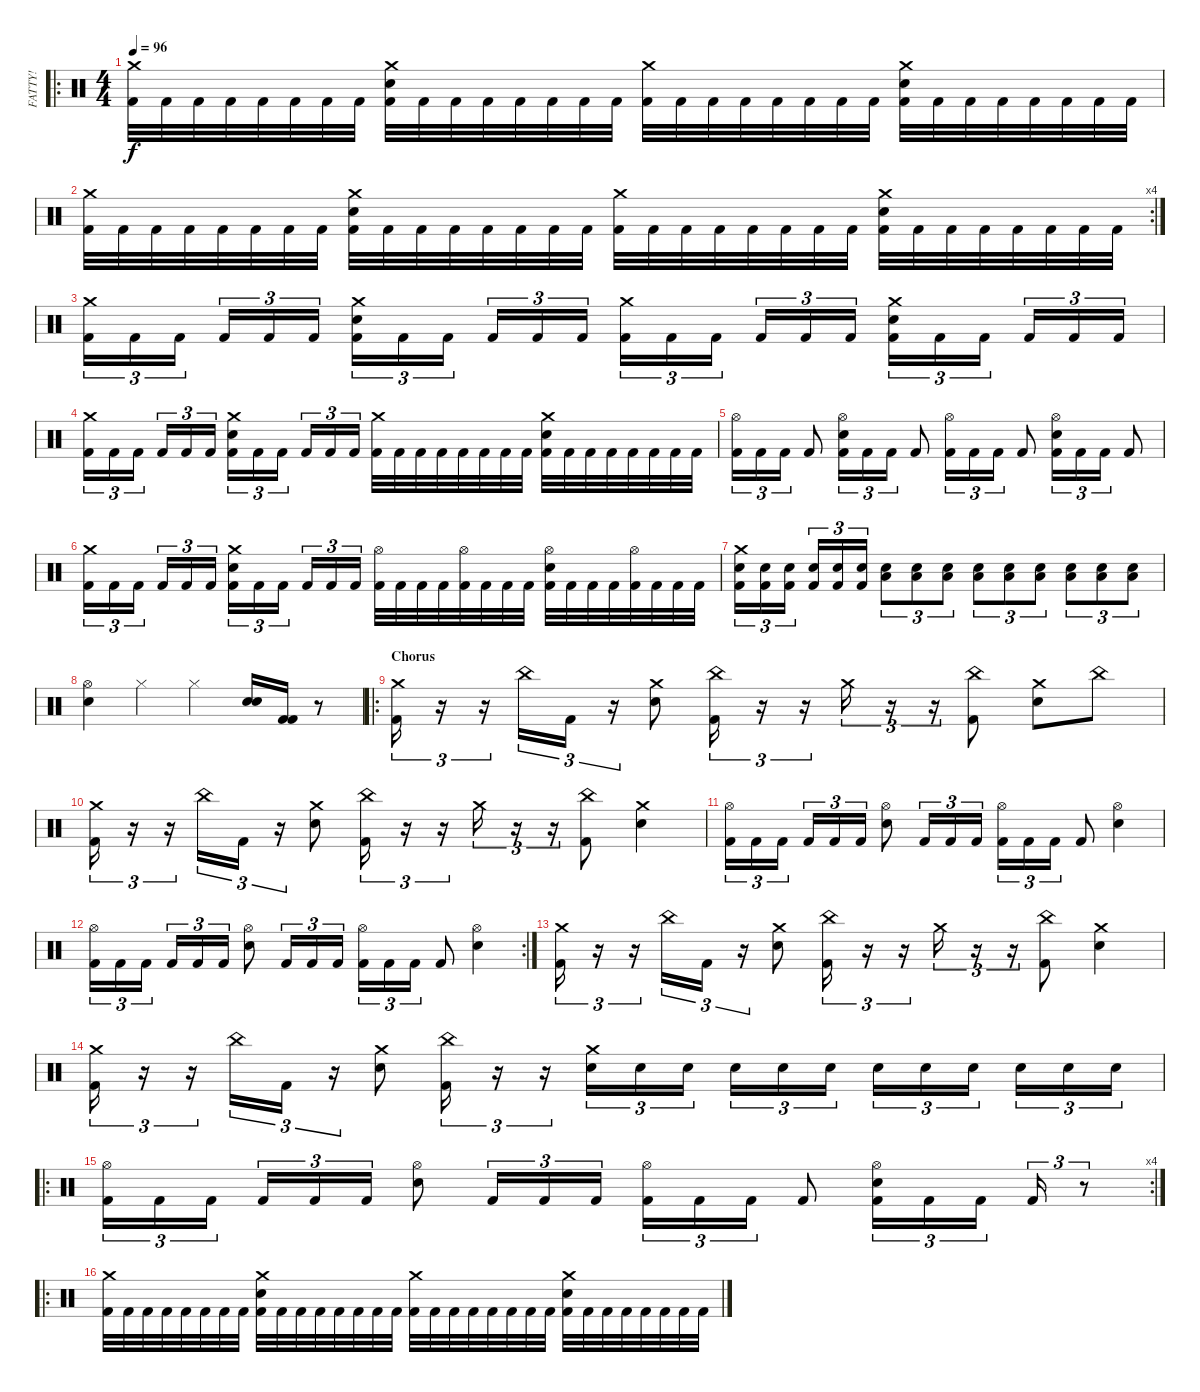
\track ("FATTY!" "FATTY!") {instrument percussion}
\staff {score}
\articulation defaults
\ro
\ts (4 4)
\tempo 96
\clef neutral
\ks c
("Crash medium (hit)" "Kick (hit) 2").32{dy f} "Kick (hit) 2".32 "Kick (hit) 2".32 "Kick (hit) 2".32 "Kick (hit) 2".32 "Kick (hit) 2".32 "Kick (hit) 2".32 "Kick (hit) 2".32 ("Crash medium (hit)" "Electric Snare (hit)" "Kick (hit) 2").32 "Kick (hit) 2".32 "Kick (hit) 2".32 "Kick (hit) 2".32 "Kick (hit) 2".32 "Kick (hit) 2".32 "Kick (hit) 2".32 "Kick (hit) 2".32 ("Crash medium (hit)" "Kick (hit) 2").32 "Kick (hit) 2".32 "Kick (hit) 2".32 "Kick (hit) 2".32 "Kick (hit) 2".32 "Kick (hit) 2".32 "Kick (hit) 2".32 "Kick (hit) 2".32 ("Crash medium (hit)" "Electric Snare (hit)" "Kick (hit) 2").32 "Kick (hit) 2".32 "Kick (hit) 2".32 "Kick (hit) 2".32 "Kick (hit) 2".32 "Kick (hit) 2".32 "Kick (hit) 2".32 "Kick (hit) 2".32 |
\rc 4
("Crash medium (hit)" "Kick (hit) 2").32 "Kick (hit) 2".32 "Kick (hit) 2".32 "Kick (hit) 2".32 "Kick (hit) 2".32 "Kick (hit) 2".32 "Kick (hit) 2".32 "Kick (hit) 2".32 ("Crash medium (hit)" "Electric Snare (hit)" "Kick (hit) 2").32 "Kick (hit) 2".32 "Kick (hit) 2".32 "Kick (hit) 2".32 "Kick (hit) 2".32 "Kick (hit) 2".32 "Kick (hit) 2".32 "Kick (hit) 2".32 ("Crash medium (hit)" "Kick (hit) 2").32 "Kick (hit) 2".32 "Kick (hit) 2".32 "Kick (hit) 2".32 "Kick (hit) 2".32 "Kick (hit) 2".32 "Kick (hit) 2".32 "Kick (hit) 2".32 ("Crash medium (hit)" "Electric Snare (hit)" "Kick (hit) 2").32 "Kick (hit) 2".32 "Kick (hit) 2".32 "Kick (hit) 2".32 "Kick (hit) 2".32 "Kick (hit) 2".32 "Kick (hit) 2".32 "Kick (hit) 2".32 |
("Crash medium (hit)" "Kick (hit) 2").16{tu (3 2)} "Kick (hit) 2".16{tu (3 2)} "Kick (hit) 2".16{tu (3 2)} "Kick (hit) 2".16{tu (3 2)} "Kick (hit) 2".16{tu (3 2)} "Kick (hit) 2".16{tu (3 2)} ("Crash medium (hit)" "Electric Snare (hit)" "Kick (hit) 2").16{tu (3 2)} "Kick (hit) 2".16{tu (3 2)} "Kick (hit) 2".16{tu (3 2)} "Kick (hit) 2".16{tu (3 2)} "Kick (hit) 2".16{tu (3 2)} "Kick (hit) 2".16{tu (3 2)} ("Crash medium (hit)" "Kick (hit) 2").16{tu (3 2)} "Kick (hit) 2".16{tu (3 2)} "Kick (hit) 2".16{tu (3 2)} "Kick (hit) 2".16{tu (3 2)} "Kick (hit) 2".16{tu (3 2)} "Kick (hit) 2".16{tu (3 2)} ("Crash medium (hit)" "Electric Snare (hit)" "Kick (hit) 2").16{tu (3 2)} "Kick (hit) 2".16{tu (3 2)} "Kick (hit) 2".16{tu (3 2)} "Kick (hit) 2".16{tu (3 2)} "Kick (hit) 2".16{tu (3 2)} "Kick (hit) 2".16{tu (3 2)} |
("Crash medium (hit)" "Kick (hit) 2").16{tu (3 2)} "Kick (hit) 2".16{tu (3 2)} "Kick (hit) 2".16{tu (3 2)} "Kick (hit) 2".16{tu (3 2)} "Kick (hit) 2".16{tu (3 2)} "Kick (hit) 2".16{tu (3 2)} ("Crash medium (hit)" "Electric Snare (hit)" "Kick (hit) 2").16{tu (3 2)} "Kick (hit) 2".16{tu (3 2)} "Kick (hit) 2".16{tu (3 2)} "Kick (hit) 2".16{tu (3 2)} "Kick (hit) 2".16{tu (3 2)} "Kick (hit) 2".16{tu (3 2)} ("Crash medium (hit)" "Kick (hit) 2").32 "Kick (hit) 2".32 "Kick (hit) 2".32 "Kick (hit) 2".32 "Kick (hit) 2".32 "Kick (hit) 2".32 "Kick (hit) 2".32 "Kick (hit) 2".32 ("Crash medium (hit)" "Electric Snare (hit)" "Kick (hit) 2").32 "Kick (hit) 2".32 "Kick (hit) 2".32 "Kick (hit) 2".32 "Kick (hit) 2".32 "Kick (hit) 2".32 "Kick (hit) 2".32 "Kick (hit) 2".32 |
("Hi-Hat (open)" "Kick (hit) 2").16{tu (3 2)} "Kick (hit) 2".16{tu (3 2)} "Kick (hit) 2".16{tu (3 2)} "Kick (hit) 2".8 ("Hi-Hat (open)" "Electric Snare (hit)" "Kick (hit) 2").16{tu (3 2)} "Kick (hit) 2".16{tu (3 2)} "Kick (hit) 2".16{tu (3 2)} "Kick (hit) 2".8 ("Hi-Hat (open)" "Kick (hit) 2").16{tu (3 2)} "Kick (hit) 2".16{tu (3 2)} "Kick (hit) 2".16{tu (3 2)} "Kick (hit) 2".8 ("Hi-Hat (open)" "Electric Snare (hit)" "Kick (hit) 2").16{tu (3 2)} "Kick (hit) 2".16{tu (3 2)} "Kick (hit) 2".16{tu (3 2)} "Kick (hit) 2".8 |
("Crash medium (hit)" "Kick (hit) 2").16{tu (3 2)} "Kick (hit) 2".16{tu (3 2)} "Kick (hit) 2".16{tu (3 2)} "Kick (hit) 2".16{tu (3 2)} "Kick (hit) 2".16{tu (3 2)} "Kick (hit) 2".16{tu (3 2)} ("Crash medium (hit)" "Electric Snare (hit)" "Kick (hit) 2").16{tu (3 2)} "Kick (hit) 2".16{tu (3 2)} "Kick (hit) 2".16{tu (3 2)} "Kick (hit) 2".16{tu (3 2)} "Kick (hit) 2".16{tu (3 2)} "Kick (hit) 2".16{tu (3 2)} ("Hi-Hat (open)" "Kick (hit) 2").32 "Kick (hit) 2".32 "Kick (hit) 2".32 "Kick (hit) 2".32 ("Hi-Hat (open)" "Kick (hit) 2").32 "Kick (hit) 2".32 "Kick (hit) 2".32 "Kick (hit) 2".32 ("Hi-Hat (open)" "Electric Snare (hit)" "Kick (hit) 2").32 "Kick (hit) 2".32 "Kick (hit) 2".32 "Kick (hit) 2".32 ("Hi-Hat (open)" "Kick (hit) 2").32 "Kick (hit) 2".32 "Kick (hit) 2".32 "Kick (hit) 2".32 |
("Crash medium (hit)" "Electric Snare (hit)" "Kick (hit) 2").16{tu (3 2)} ("Electric Snare (hit)" "Kick (hit) 2").16{tu (3 2)} ("Electric Snare (hit)" "Kick (hit) 2").16{tu (3 2)} ("Electric Snare (hit)" "Kick (hit) 2").16{tu (3 2)} ("Electric Snare (hit)" "Kick (hit) 2").16{tu (3 2)} ("Electric Snare (hit)" "Kick (hit) 2").16{tu (3 2)} ("Electric Snare (hit)" "Low Tom (hit)").8{tu (3 2)} ("Electric Snare (hit)" "Low Tom (hit)").8{tu (3 2)} ("Electric Snare (hit)" "Low Tom (hit)").8{tu (3 2)} ("Electric Snare (hit)" "Low Tom (hit)").8{tu (3 2)} ("Electric Snare (hit)" "Low Tom (hit)").8{tu (3 2)} ("Electric Snare (hit)" "Low Tom (hit)").8{tu (3 2)} ("Electric Snare (hit)" "Low Tom (hit)").8{tu (3 2)} ("Electric Snare (hit)" "Low Tom (hit)").8{tu (3 2)} ("Electric Snare (hit)" "Low Tom (hit)").8{tu (3 2)} |
("Hi-Hat (open)" "Electric Snare (hit)").4 "Hi-Hat (closed)".4 "Hi-Hat (closed)".4 ("Electric Snare (hit)" "Electric Snare (hit)").16 ("Kick (hit) 2" "Kick (hit) 2").16 r.8 |
\ro
\section ("" "Chorus")
("Crash medium (hit)" "Kick (hit) 2").16{tu (3 2)} r.16{tu (3 2)} r.16{tu (3 2)} "China (hit)".16{tu (3 2)} "Kick (hit) 2".16{tu (3 2)} r.16{tu (3 2)} ("Crash medium (hit)" "Electric Snare (hit)").8 ("China (hit)" "Kick (hit) 2").16{tu (3 2)} r.16{tu (3 2)} r.16{tu (3 2)} "Crash medium (hit)".16{tu (3 2)} r.16{tu (3 2)} r.16{tu (3 2)} ("China (hit)" "Kick (hit) 2").8 ("Crash medium (hit)" "Electric Snare (hit)").8 "China (hit)".8 |
("Crash medium (hit)" "Kick (hit) 2").16{tu (3 2)} r.16{tu (3 2)} r.16{tu (3 2)} "China (hit)".16{tu (3 2)} "Kick (hit) 2".16{tu (3 2)} r.16{tu (3 2)} ("Crash medium (hit)" "Electric Snare (hit)").8 ("China (hit)" "Kick (hit) 2").16{tu (3 2)} r.16{tu (3 2)} r.16{tu (3 2)} "Crash medium (hit)".16{tu (3 2)} r.16{tu (3 2)} r.16{tu (3 2)} ("China (hit)" "Kick (hit) 2").8 ("Crash medium (hit)" "Electric Snare (hit)").4 |
("Hi-Hat (open)" "Kick (hit) 2").16{tu (3 2)} "Kick (hit) 2".16{tu (3 2)} "Kick (hit) 2".16{tu (3 2)} "Kick (hit) 2".16{tu (3 2)} "Kick (hit) 2".16{tu (3 2)} "Kick (hit) 2".16{tu (3 2)} ("Hi-Hat (open)" "Electric Snare (hit)").8 "Kick (hit) 2".16{tu (3 2)} "Kick (hit) 2".16{tu (3 2)} "Kick (hit) 2".16{tu (3 2)} ("Hi-Hat (open)" "Kick (hit) 2").16{tu (3 2)} "Kick (hit) 2".16{tu (3 2)} "Kick (hit) 2".16{tu (3 2)} "Kick (hit) 2".8 ("Hi-Hat (open)" "Electric Snare (hit)").4 |
\rc 2
("Hi-Hat (open)" "Kick (hit) 2").16{tu (3 2)} "Kick (hit) 2".16{tu (3 2)} "Kick (hit) 2".16{tu (3 2)} "Kick (hit) 2".16{tu (3 2)} "Kick (hit) 2".16{tu (3 2)} "Kick (hit) 2".16{tu (3 2)} ("Hi-Hat (open)" "Electric Snare (hit)").8 "Kick (hit) 2".16{tu (3 2)} "Kick (hit) 2".16{tu (3 2)} "Kick (hit) 2".16{tu (3 2)} ("Hi-Hat (open)" "Kick (hit) 2").16{tu (3 2)} "Kick (hit) 2".16{tu (3 2)} "Kick (hit) 2".16{tu (3 2)} "Kick (hit) 2".8 ("Hi-Hat (open)" "Electric Snare (hit)").4 |
("Crash medium (hit)" "Kick (hit) 2").16{tu (3 2)} r.16{tu (3 2)} r.16{tu (3 2)} "China (hit)".16{tu (3 2)} "Kick (hit) 2".16{tu (3 2)} r.16{tu (3 2)} ("Crash medium (hit)" "Electric Snare (hit)").8 ("China (hit)" "Kick (hit) 2").16{tu (3 2)} r.16{tu (3 2)} r.16{tu (3 2)} "Crash medium (hit)".16{tu (3 2)} r.16{tu (3 2)} r.16{tu (3 2)} ("China (hit)" "Kick (hit) 2").8 ("Crash medium (hit)" "Electric Snare (hit)").4 |
("Crash medium (hit)" "Kick (hit) 2").16{tu (3 2)} r.16{tu (3 2)} r.16{tu (3 2)} "China (hit)".16{tu (3 2)} "Kick (hit) 2".16{tu (3 2)} r.16{tu (3 2)} ("Crash medium (hit)" "Electric Snare (hit)").8 ("China (hit)" "Kick (hit) 2").16{tu (3 2)} r.16{tu (3 2)} r.16{tu (3 2)} ("Crash medium (hit)" "Electric Snare (hit)").16{tu (3 2) volume 7} "Electric Snare (hit)".16{tu (3 2) volume 8} "Electric Snare (hit)".16{tu (3 2) volume 9} "Electric Snare (hit)".16{tu (3 2) volume 10} "Electric Snare (hit)".16{tu (3 2) volume 11} "Electric Snare (hit)".16{tu (3 2) volume 12} "Electric Snare (hit)".16{tu (3 2) volume 13} "Electric Snare (hit)".16{tu (3 2)} "Electric Snare (hit)".16{tu (3 2)} "Electric Snare (hit)".16{tu (3 2)} "Electric Snare (hit)".16{tu (3 2)} "Electric Snare (hit)".16{tu (3 2)} |
\ro
\rc 4
("Hi-Hat (open)" "Kick (hit) 2").16{tu (3 2)} "Kick (hit) 2".16{tu (3 2)} "Kick (hit) 2".16{tu (3 2)} "Kick (hit) 2".16{tu (3 2)} "Kick (hit) 2".16{tu (3 2)} "Kick (hit) 2".16{tu (3 2)} ("Hi-Hat (open)" "Electric Snare (hit)").8 "Kick (hit) 2".16{tu (3 2)} "Kick (hit) 2".16{tu (3 2)} "Kick (hit) 2".16{tu (3 2)} ("Hi-Hat (open)" "Kick (hit) 2").16{tu (3 2)} "Kick (hit) 2".16{tu (3 2)} "Kick (hit) 2".16{tu (3 2)} "Kick (hit) 2".8 ("Hi-Hat (open)" "Electric Snare (hit)" "Kick (hit) 2").16{tu (3 2)} "Kick (hit) 2".16{tu (3 2)} "Kick (hit) 2".16{tu (3 2)} "Kick (hit) 2".16{tu (3 2)} r.8{tu (3 2)} |
\ro
("Crash medium (hit)" "Kick (hit) 2").32 "Kick (hit) 2".32 "Kick (hit) 2".32 "Kick (hit) 2".32 "Kick (hit) 2".32 "Kick (hit) 2".32 "Kick (hit) 2".32 "Kick (hit) 2".32 ("Crash medium (hit)" "Electric Snare (hit)" "Kick (hit) 2").32 "Kick (hit) 2".32 "Kick (hit) 2".32 "Kick (hit) 2".32 "Kick (hit) 2".32 "Kick (hit) 2".32 "Kick (hit) 2".32 "Kick (hit) 2".32 ("Crash medium (hit)" "Kick (hit) 2").32 "Kick (hit) 2".32 "Kick (hit) 2".32 "Kick (hit) 2".32 "Kick (hit) 2".32 "Kick (hit) 2".32 "Kick (hit) 2".32 "Kick (hit) 2".32 ("Crash medium (hit)" "Electric Snare (hit)" "Kick (hit) 2").32 "Kick (hit) 2".32 "Kick (hit) 2".32 "Kick (hit) 2".32 "Kick (hit) 2".32 "Kick (hit) 2".32 "Kick (hit) 2".32 "Kick (hit) 2".32
